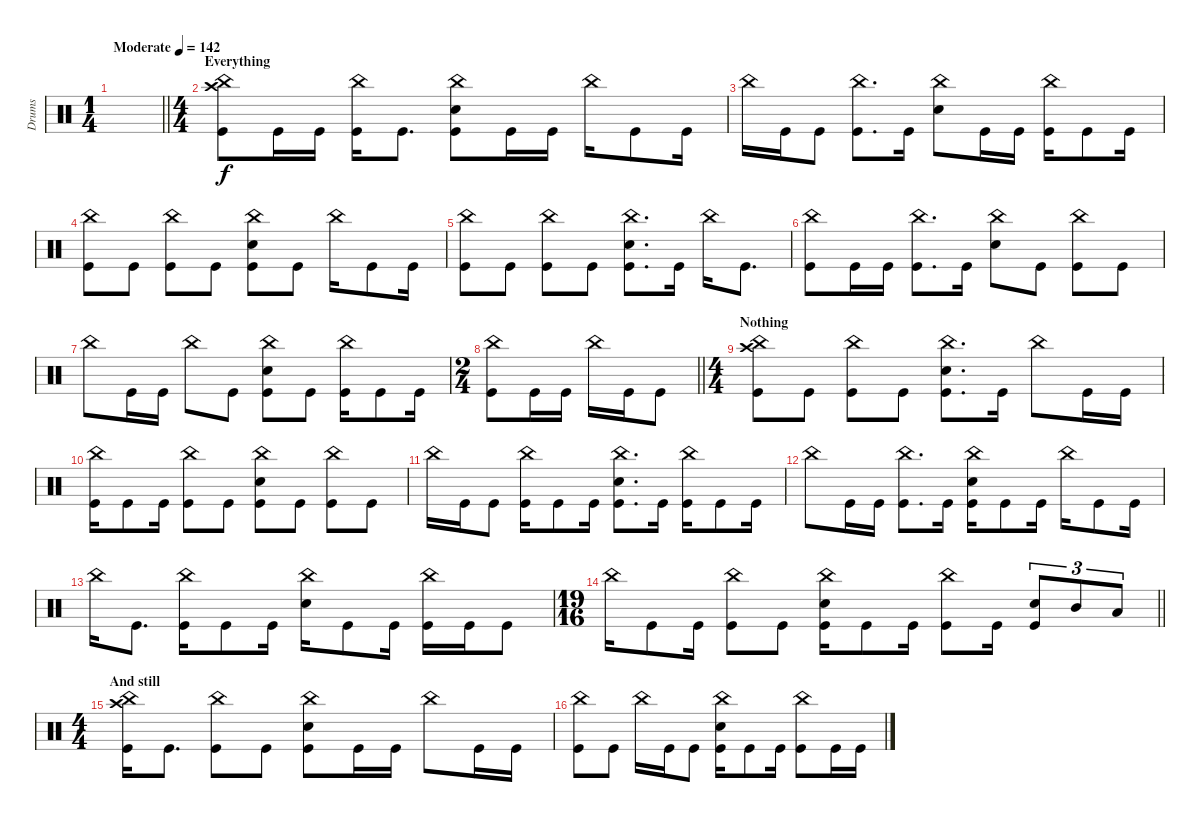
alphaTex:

\track ("Drums" "Drums") {instrument percussion}
\staff
\articulation defaults
\ts (1 4)
\tempo (142 "Moderate")
\clef neutral
\barLineRight lightlight
\ks c
|
\ts (4 4)
\section ("" "Everything")
("China (hit)" "Crash high (hit)" "Kick (hit)").8 "Kick (hit)".16 "Kick (hit)".16 ("China (hit)" "Kick (hit)").16 "Kick (hit)".8{d} ("China (hit)" "Electric Snare (hit)" "Kick (hit)").8 "Kick (hit)".16 "Kick (hit)".16 "China (hit)".16 "Kick (hit)".8 "Kick (hit)".16 |
"China (hit)".16 "Kick (hit)".16 "Kick (hit)".8 ("China (hit)" "Kick (hit)").8{d} "Kick (hit)".16 ("China (hit)" "Electric Snare (hit)").8 "Kick (hit)".16 "Kick (hit)".16 ("China (hit)" "Kick (hit)").16 "Kick (hit)".8 "Kick (hit)".16 |
("China (hit)" "Kick (hit)").8 "Kick (hit)".8 ("China (hit)" "Kick (hit)").8 "Kick (hit)".8 ("China (hit)" "Electric Snare (hit)" "Kick (hit)").8 "Kick (hit)".8 "China (hit)".16 "Kick (hit)".8 "Kick (hit)".16 |
("China (hit)" "Kick (hit)").8 "Kick (hit)".8 ("China (hit)" "Kick (hit)").8 "Kick (hit)".8 ("China (hit)" "Electric Snare (hit)" "Kick (hit)").8{d} "Kick (hit)".16 "China (hit)".16 "Kick (hit)".8{d} |
("China (hit)" "Kick (hit)").8 "Kick (hit)".16 "Kick (hit)".16 ("China (hit)" "Kick (hit)").8{d} "Kick (hit)".16 ("China (hit)" "Electric Snare (hit)").8 "Kick (hit)".8 ("China (hit)" "Kick (hit)").8 "Kick (hit)".8 |
"China (hit)".8 "Kick (hit)".16 "Kick (hit)".16 "China (hit)".8 "Kick (hit)".8 ("China (hit)" "Electric Snare (hit)" "Kick (hit)").8 "Kick (hit)".8 ("China (hit)" "Kick (hit)").16 "Kick (hit)".8 "Kick (hit)".16 |
\ts (2 4)
\barLineRight lightlight
("China (hit)" "Kick (hit)").8 "Kick (hit)".16 "Kick (hit)".16 "China (hit)".16 "Kick (hit)".16 "Kick (hit)".8 |
\ts (4 4)
\section ("" "Nothing")
("China (hit)" "Crash high (hit)" "Kick (hit)").8 "Kick (hit)".8 ("China (hit)" "Kick (hit)").8 "Kick (hit)".8 ("China (hit)" "Electric Snare (hit)" "Kick (hit)").8{d} "Kick (hit)".16 "China (hit)".8 "Kick (hit)".16 "Kick (hit)".16 |
("China (hit)" "Kick (hit)").16 "Kick (hit)".8 "Kick (hit)".16 ("China (hit)" "Kick (hit)").8 "Kick (hit)".8 ("China (hit)" "Electric Snare (hit)" "Kick (hit)").8 "Kick (hit)".8 ("China (hit)" "Kick (hit)").8 "Kick (hit)".8 |
"China (hit)".16 "Kick (hit)".16 "Kick (hit)".8 ("China (hit)" "Kick (hit)").16 "Kick (hit)".8 "Kick (hit)".16 ("China (hit)" "Electric Snare (hit)" "Kick (hit)").8{d} "Kick (hit)".16 ("China (hit)" "Kick (hit)").16 "Kick (hit)".8 "Kick (hit)".16 |
"China (hit)".8 "Kick (hit)".16 "Kick (hit)".16 ("China (hit)" "Kick (hit)").8{d} "Kick (hit)".16 ("China (hit)" "Electric Snare (hit)" "Kick (hit)").16 "Kick (hit)".8 "Kick (hit)".16 "China (hit)".16 "Kick (hit)".8 "Kick (hit)".16 |
"China (hit)".16 "Kick (hit)".8{d} ("China (hit)" "Kick (hit)").16 "Kick (hit)".8 "Kick (hit)".16 ("China (hit)" "Electric Snare (hit)").16 "Kick (hit)".8 "Kick (hit)".16 ("China (hit)" "Kick (hit)").16 "Kick (hit)".16 "Kick (hit)".8 |
\ts (19 16)
\barLineRight lightlight "China (hit)".16 "Kick (hit)".8 "Kick (hit)".16
("China (hit)" "Kick (hit)").8 "Kick (hit)".8 ("China (hit)" "Electric Snare (hit)" "Kick (hit)").16 "Kick (hit)".8 "Kick (hit)".16 ("China (hit)" "Kick (hit)").8 "Kick (hit)".16 ("Electric Snare (hit)" "Kick (hit)").8{tu (3 2)} "Mid Tom (hit)".8{tu (3 2)} "Low Tom (hit)".8{tu (3 2)} |
\ts (4 4)
\section ("" "And still")
("China (hit)" "Crash high (hit)" "Kick (hit)").16 "Kick (hit)".8{d} ("China (hit)" "Kick (hit)").8 "Kick (hit)".8 ("China (hit)" "Electric Snare (hit)" "Kick (hit)").8 "Kick (hit)".16 "Kick (hit)".16 "China (hit)".8 "Kick (hit)".16 "Kick (hit)".16 |
("China (hit)" "Kick (hit)").8 "Kick (hit)".8 "China (hit)".16 "Kick (hit)".16 "Kick (hit)".8 ("China (hit)" "Electric Snare (hit)" "Kick (hit)").16 "Kick (hit)".8 "Kick (hit)".16 ("China (hit)" "Kick (hit)").8 "Kick (hit)".16 "Kick (hit)".16
